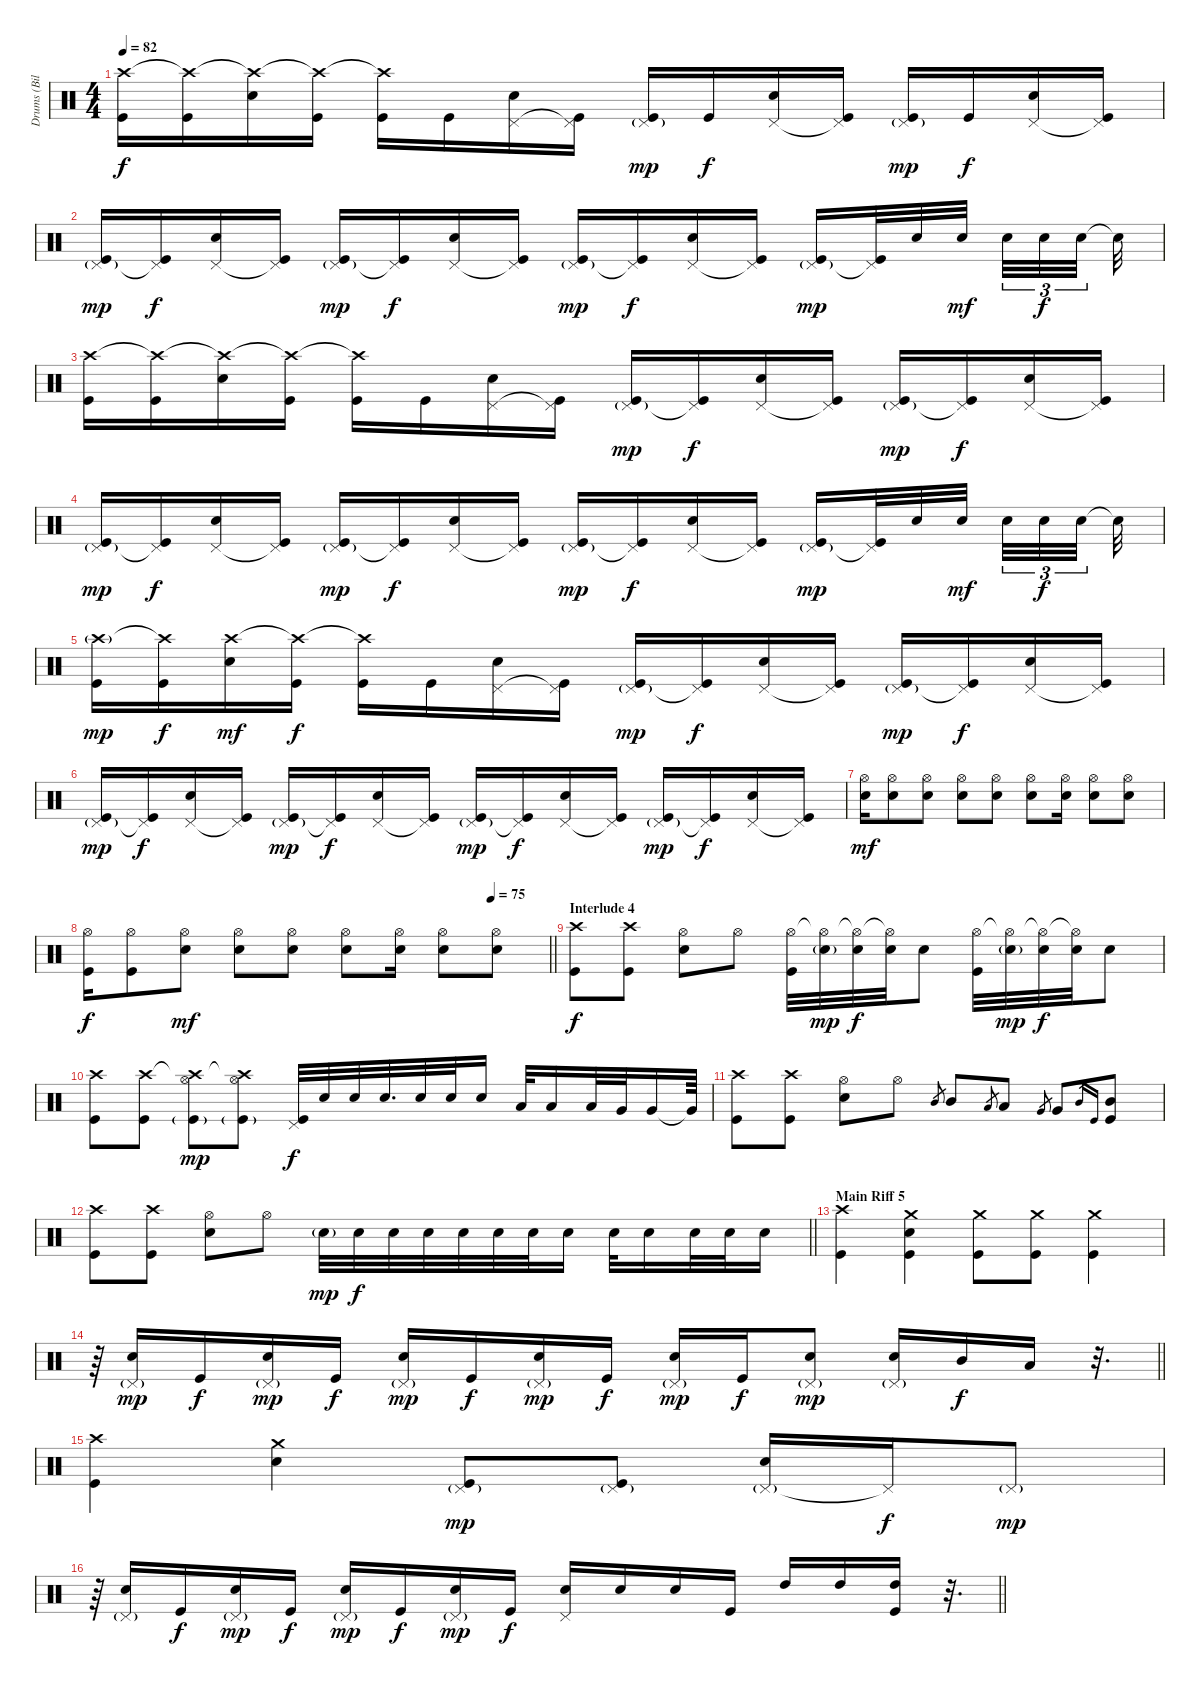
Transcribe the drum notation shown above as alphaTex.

\track ("Drums (Bill Ward)" "Drums (Bil") {instrument percussion}
\staff {score}
\articulation defaults
\ts (4 4)
\tempo 82
\clef neutral
\ks c
("Crash high (hit)" "Kick (hit)").16{dy f} ("Crash high (hit)"{t} "Kick (hit)").16 ("Crash high (hit)"{t} "Electric Snare (hit)").16 ("Crash high (hit)"{t} "Kick (hit)").16 ("Crash high (hit)"{t} "Kick (hit)").16 "Kick (hit)".16 ("Pedal Hi-Hat (hit)" "Electric Snare (hit)").16 ("Pedal Hi-Hat (hit)"{t} "Kick (hit)").16 ("Pedal Hi-Hat (hit)"{g} "Kick (hit)").16{dy mp} "Kick (hit)".16{dy f} ("Pedal Hi-Hat (hit)" "Electric Snare (hit)").16 ("Pedal Hi-Hat (hit)"{t} "Kick (hit)").16 ("Pedal Hi-Hat (hit)"{g} "Kick (hit)").16{dy mp} "Kick (hit)".16{dy f} ("Pedal Hi-Hat (hit)" "Electric Snare (hit)").16 ("Pedal Hi-Hat (hit)"{t} "Kick (hit)").16 |
("Pedal Hi-Hat (hit)"{g} "Kick (hit)").16{dy mp} ("Pedal Hi-Hat (hit)"{t} "Kick (hit)").16{dy f} ("Pedal Hi-Hat (hit)" "Electric Snare (hit)").16 ("Pedal Hi-Hat (hit)"{t} "Kick (hit)").16 ("Pedal Hi-Hat (hit)"{g} "Kick (hit)").16{dy mp} ("Pedal Hi-Hat (hit)"{t} "Kick (hit)").16{dy f} ("Pedal Hi-Hat (hit)" "Electric Snare (hit)").16 ("Pedal Hi-Hat (hit)"{t} "Kick (hit)").16 ("Pedal Hi-Hat (hit)"{g} "Kick (hit)").16{dy mp} ("Pedal Hi-Hat (hit)"{t} "Kick (hit)").16{dy f} ("Pedal Hi-Hat (hit)" "Electric Snare (hit)").16 ("Pedal Hi-Hat (hit)"{t} "Kick (hit)").16 ("Pedal Hi-Hat (hit)"{g} "Kick (hit)").16{dy mp} ("Pedal Hi-Hat (hit)"{t} "Kick (hit)").32 "Electric Snare (hit)".32 "Electric Snare (hit)".32{dy mf beam splitsecondary} "Electric Snare (hit)".32{tu (3 2)} "Electric Snare (hit)".32{tu (3 2) dy f} "Electric Snare (hit)".32{tu (3 2) beam splitsecondary} "Electric Snare (hit)"{t}.32 |
("Crash high (hit)" "Kick (hit)").16 ("Crash high (hit)"{t} "Kick (hit)").16 ("Crash high (hit)"{t} "Electric Snare (hit)").16 ("Crash high (hit)"{t} "Kick (hit)").16 ("Crash high (hit)"{t} "Kick (hit)").16 "Kick (hit)".16 ("Pedal Hi-Hat (hit)" "Electric Snare (hit)").16 ("Pedal Hi-Hat (hit)"{t} "Kick (hit)").16 ("Pedal Hi-Hat (hit)"{g} "Kick (hit)").16{dy mp} ("Pedal Hi-Hat (hit)"{t} "Kick (hit)").16{dy f} ("Pedal Hi-Hat (hit)" "Electric Snare (hit)").16 ("Pedal Hi-Hat (hit)"{t} "Kick (hit)").16 ("Pedal Hi-Hat (hit)"{g} "Kick (hit)").16{dy mp} ("Pedal Hi-Hat (hit)"{t} "Kick (hit)").16{dy f} ("Pedal Hi-Hat (hit)" "Electric Snare (hit)").16 ("Pedal Hi-Hat (hit)"{t} "Kick (hit)").16 |
("Pedal Hi-Hat (hit)"{g} "Kick (hit)").16{dy mp} ("Pedal Hi-Hat (hit)"{t} "Kick (hit)").16{dy f} ("Pedal Hi-Hat (hit)" "Electric Snare (hit)").16 ("Pedal Hi-Hat (hit)"{t} "Kick (hit)").16 ("Pedal Hi-Hat (hit)"{g} "Kick (hit)").16{dy mp} ("Pedal Hi-Hat (hit)"{t} "Kick (hit)").16{dy f} ("Pedal Hi-Hat (hit)" "Electric Snare (hit)").16 ("Pedal Hi-Hat (hit)"{t} "Kick (hit)").16 ("Pedal Hi-Hat (hit)"{g} "Kick (hit)").16{dy mp} ("Pedal Hi-Hat (hit)"{t} "Kick (hit)").16{dy f} ("Pedal Hi-Hat (hit)" "Electric Snare (hit)").16 ("Pedal Hi-Hat (hit)"{t} "Kick (hit)").16 ("Pedal Hi-Hat (hit)"{g} "Kick (hit)").16{dy mp} ("Pedal Hi-Hat (hit)"{t} "Kick (hit)").32 "Electric Snare (hit)".32 "Electric Snare (hit)".32{dy mf beam splitsecondary} "Electric Snare (hit)".32{tu (3 2)} "Electric Snare (hit)".32{tu (3 2) dy f} "Electric Snare (hit)".32{tu (3 2) beam splitsecondary} "Electric Snare (hit)"{t}.32 |
("Crash high (hit)"{g} "Kick (hit)").16{dy mp} ("Crash high (hit)"{t} "Kick (hit)").16{dy f} ("Crash high (hit)" "Electric Snare (hit)").16{dy mf} ("Crash high (hit)"{t} "Kick (hit)").16{dy f} ("Crash high (hit)"{t} "Kick (hit)").16 "Kick (hit)".16 ("Pedal Hi-Hat (hit)" "Electric Snare (hit)").16 ("Pedal Hi-Hat (hit)"{t} "Kick (hit)").16 ("Pedal Hi-Hat (hit)"{g} "Kick (hit)").16{dy mp} ("Pedal Hi-Hat (hit)"{t} "Kick (hit)").16{dy f} ("Pedal Hi-Hat (hit)" "Electric Snare (hit)").16 ("Pedal Hi-Hat (hit)"{t} "Kick (hit)").16 ("Pedal Hi-Hat (hit)"{g} "Kick (hit)").16{dy mp} ("Pedal Hi-Hat (hit)"{t} "Kick (hit)").16{dy f} ("Pedal Hi-Hat (hit)" "Electric Snare (hit)").16 ("Pedal Hi-Hat (hit)"{t} "Kick (hit)").16 |
("Pedal Hi-Hat (hit)"{g} "Kick (hit)").16{dy mp} ("Pedal Hi-Hat (hit)"{t} "Kick (hit)").16{dy f} ("Pedal Hi-Hat (hit)" "Electric Snare (hit)").16 ("Pedal Hi-Hat (hit)"{t} "Kick (hit)").16 ("Pedal Hi-Hat (hit)"{g} "Kick (hit)").16{dy mp} ("Pedal Hi-Hat (hit)"{t} "Kick (hit)").16{dy f} ("Pedal Hi-Hat (hit)" "Electric Snare (hit)").16 ("Pedal Hi-Hat (hit)"{t} "Kick (hit)").16 ("Pedal Hi-Hat (hit)"{g} "Kick (hit)").16{dy mp} ("Pedal Hi-Hat (hit)"{t} "Kick (hit)").16{dy f} ("Pedal Hi-Hat (hit)" "Electric Snare (hit)").16 ("Pedal Hi-Hat (hit)"{t} "Kick (hit)").16 ("Pedal Hi-Hat (hit)"{g} "Kick (hit)").16{dy mp} ("Pedal Hi-Hat (hit)"{t} "Kick (hit)").16{dy f} ("Pedal Hi-Hat (hit)" "Electric Snare (hit)").16 ("Pedal Hi-Hat (hit)"{t} "Kick (hit)").16 |
("Hi-Hat (open)" "Electric Snare (hit)").16{dy mf} ("Hi-Hat (open)" "Electric Snare (hit)").8 ("Hi-Hat (open)" "Electric Snare (hit)").8 ("Hi-Hat (open)" "Electric Snare (hit)").8 ("Hi-Hat (open)" "Electric Snare (hit)").8 ("Hi-Hat (open)" "Electric Snare (hit)").8 ("Hi-Hat (open)" "Electric Snare (hit)").16 ("Hi-Hat (open)" "Electric Snare (hit)").8 ("Hi-Hat (open)" "Electric Snare (hit)").8 |
\tempo (75 0.875)
\barLineRight lightlight
("Hi-Hat (open)" "Kick (hit)").16{dy f} ("Hi-Hat (open)" "Kick (hit)").8 ("Hi-Hat (open)" "Electric Snare (hit)").8{dy mf} ("Hi-Hat (open)" "Electric Snare (hit)").8 ("Hi-Hat (open)" "Electric Snare (hit)").8 ("Hi-Hat (open)" "Electric Snare (hit)").8 ("Hi-Hat (open)" "Electric Snare (hit)").16 ("Hi-Hat (open)" "Electric Snare (hit)").8 ("Hi-Hat (open)" "Electric Snare (hit)").8 |
\section ("" "Interlude 4")
("Crash high (hit)" "Kick (hit)").8{dy f} ("Crash high (hit)" "Kick (hit)").8 ("Hi-Hat (open)" "Electric Snare (hit)").8 "Hi-Hat (open)".8 ("Hi-Hat (open)" "Kick (hit)").32 ("Hi-Hat (open)"{t} "Electric Snare (hit)"{g}).32{dy mp} ("Hi-Hat (open)"{t} "Electric Snare (hit)").32{dy f} ("Hi-Hat (open)"{t} "Electric Snare (hit)").32 "Electric Snare (hit)".8 ("Hi-Hat (open)" "Kick (hit)").32 ("Hi-Hat (open)"{t} "Electric Snare (hit)"{g}).32{dy mp} ("Hi-Hat (open)"{t} "Electric Snare (hit)").32{dy f} ("Hi-Hat (open)"{t} "Electric Snare (hit)").32 "Electric Snare (hit)".8 |
("Crash high (hit)" "Kick (hit)").8 ("Crash high (hit)" "Kick (hit)").8 ("Crash high (hit)"{t} "Hi-Hat (open)" "Kick (hit)"{g}).8{dy mp} ("Crash high (hit)"{t} "Hi-Hat (open)" "Kick (hit)"{g}).8 ("Pedal Hi-Hat (hit)" "Kick (hit)").32{dy f} "Electric Snare (hit)".32 "Electric Snare (hit)".32 "Electric Snare (hit)".32{d} "Electric Snare (hit)".32 "Electric Snare (hit)".32 "Electric Snare (hit)".16 "Low Tom (hit)".32 "Low Tom (hit)".16 "Low Tom (hit)".32 "Very Low Tom (hit)".32 "Very Low Tom (hit)".16 "Very Low Tom (hit)"{t}.64 |
("Crash high (hit)" "Kick (hit)").8 ("Crash high (hit)" "Kick (hit)").8 ("Hi-Hat (open)" "Electric Snare (hit)").8 "Hi-Hat (open)".8 "Mid Tom (hit)".8{gr} "Mid Tom (hit)".8 "Low Tom (hit)".8{gr} "Low Tom (hit)".8 "Very Low Tom (hit)".8{gr} "Very Low Tom (hit)".8 "Mid Tom (hit)".16{gr} "Kick (hit)".16{gr} ("Mid Tom (hit)" "Kick (hit)").8 |
\barLineRight lightlight
("Crash high (hit)" "Kick (hit)").8 ("Crash high (hit)" "Kick (hit)").8 ("Hi-Hat (open)" "Electric Snare (hit)").8 "Hi-Hat (open)".8 "Electric Snare (hit)"{g}.32{dy mp} "Electric Snare (hit)".32{dy f} "Electric Snare (hit)".32 "Electric Snare (hit)".32 "Electric Snare (hit)".32 "Electric Snare (hit)".32 "Electric Snare (hit)".32 "Electric Snare (hit)".16 "Electric Snare (hit)".32 "Electric Snare (hit)".16 "Electric Snare (hit)".32 "Electric Snare (hit)".32 "Electric Snare (hit)".16 |
\section ("" "Main Riff 5")
("Crash high (hit)" "Kick (hit)").4 ("Crash medium (hit)" "Electric Snare (hit)" "Kick (hit)").4 ("Crash medium (hit)" "Kick (hit)").8 ("Crash medium (hit)" "Kick (hit)").8 ("Crash medium (hit)" "Kick (hit)").4 |
\barLineRight lightlight
r.64 ("Pedal Hi-Hat (hit)"{g} "Electric Snare (hit)").16{dy mp} "Kick (hit)".16{dy f} ("Pedal Hi-Hat (hit)"{g} "Electric Snare (hit)").16{dy mp} "Kick (hit)".16{dy f} ("Pedal Hi-Hat (hit)"{g} "Electric Snare (hit)").16{dy mp} "Kick (hit)".16{dy f} ("Pedal Hi-Hat (hit)"{g} "Electric Snare (hit)").16{dy mp} "Kick (hit)".16{dy f} ("Pedal Hi-Hat (hit)"{g} "Electric Snare (hit)").16{dy mp} "Kick (hit)".16{dy f} ("Pedal Hi-Hat (hit)"{g} "Electric Snare (hit)").8{dy mp} ("Pedal Hi-Hat (hit)"{g} "Electric Snare (hit)").16 "Mid Tom (hit)".16{dy f} "Low Tom (hit)".16 r.32{d} |
("Crash high (hit)" "Kick (hit)").4 ("Crash medium (hit)" "Electric Snare (hit)").4 ("Pedal Hi-Hat (hit)"{g} "Kick (hit)").8{dy mp} ("Pedal Hi-Hat (hit)"{g} "Kick (hit)").8 ("Pedal Hi-Hat (hit)"{g} "Electric Snare (hit)").16 "Pedal Hi-Hat (hit)"{t}.16{dy f} "Pedal Hi-Hat (hit)"{g}.8{dy mp} |
\barLineRight lightlight
r.64 ("Pedal Hi-Hat (hit)"{g} "Electric Snare (hit)").16 "Kick (hit)".16{dy f} ("Pedal Hi-Hat (hit)"{g} "Electric Snare (hit)").16{dy mp} "Kick (hit)".16{dy f} ("Pedal Hi-Hat (hit)"{g} "Electric Snare (hit)").16{dy mp} "Kick (hit)".16{dy f} ("Pedal Hi-Hat (hit)"{g} "Electric Snare (hit)").16{dy mp} "Kick (hit)".16{dy f} ("Pedal Hi-Hat (hit)" "Electric Snare (hit)").16 "Electric Snare (hit)".16 "Electric Snare (hit)".16 "Kick (hit)".16 "High Tom (hit)".16 "High Tom (hit)".16 ("High Tom (hit)" "Kick (hit)").16 r.32{d}
